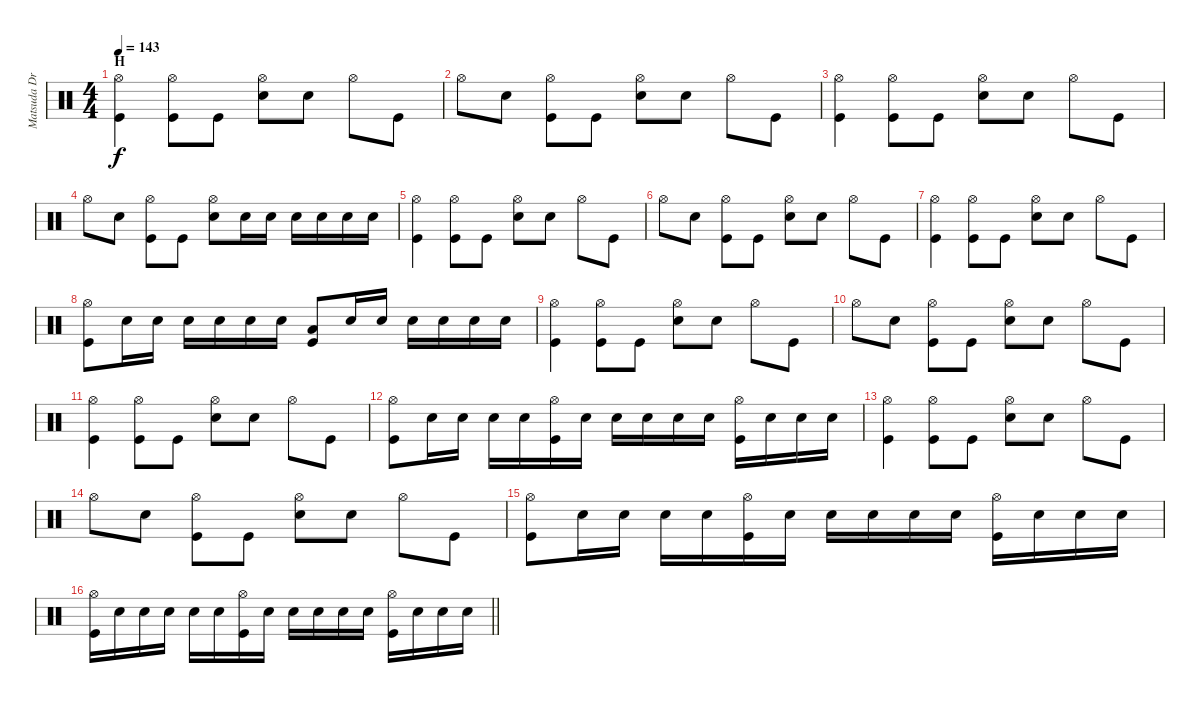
\track ("Matsuda Drums" "Matsuda Dr") {instrument percussion}
\staff {score}
\articulation defaults
\ts (4 4)
\section ("" "H")
\tempo 143
\clef neutral
\ks c
("Hi-Hat (open)" "Kick (hit)").4{dy f} ("Hi-Hat (open)" "Kick (hit)").8 "Kick (hit)".8 ("Hi-Hat (open)" "Snare (hit) 2").8 "Snare (hit) 2".8 "Hi-Hat (open)".8 "Kick (hit)".8 |
"Hi-Hat (open)".8 "Snare (hit) 2".8 ("Hi-Hat (open)" "Kick (hit)").8 "Kick (hit)".8 ("Hi-Hat (open)" "Snare (hit) 2").8 "Snare (hit) 2".8 "Hi-Hat (open)".8 "Kick (hit)".8 |
("Hi-Hat (open)" "Kick (hit)").4 ("Hi-Hat (open)" "Kick (hit)").8 "Kick (hit)".8 ("Hi-Hat (open)" "Snare (hit) 2").8 "Snare (hit) 2".8 "Hi-Hat (open)".8 "Kick (hit)".8 |
"Hi-Hat (open)".8 "Snare (hit) 2".8 ("Hi-Hat (open)" "Kick (hit)").8 "Kick (hit)".8 ("Hi-Hat (open)" "Snare (hit) 2").8 "Snare (hit) 2".16 "Snare (hit) 2".16 "Snare (hit) 2".16 "Snare (hit) 2".16 "Snare (hit) 2".16 "Snare (hit) 2".16 |
("Hi-Hat (open)" "Kick (hit)").4 ("Hi-Hat (open)" "Kick (hit)").8 "Kick (hit)".8 ("Hi-Hat (open)" "Snare (hit) 2").8 "Snare (hit) 2".8 "Hi-Hat (open)".8 "Kick (hit)".8 |
"Hi-Hat (open)".8 "Snare (hit) 2".8 ("Hi-Hat (open)" "Kick (hit)").8 "Kick (hit)".8 ("Hi-Hat (open)" "Snare (hit) 2").8 "Snare (hit) 2".8 "Hi-Hat (open)".8 "Kick (hit)".8 |
("Hi-Hat (open)" "Kick (hit)").4 ("Hi-Hat (open)" "Kick (hit)").8 "Kick (hit)".8 ("Hi-Hat (open)" "Snare (hit) 2").8 "Snare (hit) 2".8 "Hi-Hat (open)".8 "Kick (hit)".8 |
("Hi-Hat (open)" "Kick (hit)").8 "Snare (hit) 2".16 "Snare (hit) 2".16 "Snare (hit) 2".16 "Snare (hit) 2".16 "Snare (hit) 2".16 "Snare (hit) 2".16 ("Low Tom (hit)" "Kick (hit)").8 "Snare (hit) 2".16 "Snare (hit) 2".16 "Snare (hit) 2".16 "Snare (hit) 2".16 "Snare (hit) 2".16 "Snare (hit) 2".16 |
("Hi-Hat (open)" "Kick (hit)").4 ("Hi-Hat (open)" "Kick (hit)").8 "Kick (hit)".8 ("Hi-Hat (open)" "Snare (hit) 2").8 "Snare (hit) 2".8 "Hi-Hat (open)".8 "Kick (hit)".8 |
"Hi-Hat (open)".8 "Snare (hit) 2".8 ("Hi-Hat (open)" "Kick (hit)").8 "Kick (hit)".8 ("Hi-Hat (open)" "Snare (hit) 2").8 "Snare (hit) 2".8 "Hi-Hat (open)".8 "Kick (hit)".8 |
("Hi-Hat (open)" "Kick (hit)").4 ("Hi-Hat (open)" "Kick (hit)").8 "Kick (hit)".8 ("Hi-Hat (open)" "Snare (hit) 2").8 "Snare (hit) 2".8 "Hi-Hat (open)".8 "Kick (hit)".8 |
("Hi-Hat (open)" "Kick (hit)").8 "Snare (hit) 2".16 "Snare (hit) 2".16 "Snare (hit) 2".16 "Snare (hit) 2".16 ("Hi-Hat (open)" "Kick (hit)").16 "Snare (hit) 2".16 "Snare (hit) 2".16 "Snare (hit) 2".16 "Snare (hit) 2".16 "Snare (hit) 2".16 ("Hi-Hat (open)" "Kick (hit)").16 "Snare (hit) 2".16 "Snare (hit) 2".16 "Snare (hit) 2".16 |
("Hi-Hat (open)" "Kick (hit)").4 ("Hi-Hat (open)" "Kick (hit)").8 "Kick (hit)".8 ("Hi-Hat (open)" "Snare (hit) 2").8 "Snare (hit) 2".8 "Hi-Hat (open)".8 "Kick (hit)".8 |
"Hi-Hat (open)".8 "Snare (hit) 2".8 ("Hi-Hat (open)" "Kick (hit)").8 "Kick (hit)".8 ("Hi-Hat (open)" "Snare (hit) 2").8 "Snare (hit) 2".8 "Hi-Hat (open)".8 "Kick (hit)".8 |
("Hi-Hat (open)" "Kick (hit)").8 "Snare (hit) 2".16 "Snare (hit) 2".16 "Snare (hit) 2".16 "Snare (hit) 2".16 ("Hi-Hat (open)" "Kick (hit)").16 "Snare (hit) 2".16 "Snare (hit) 2".16 "Snare (hit) 2".16 "Snare (hit) 2".16 "Snare (hit) 2".16 ("Hi-Hat (open)" "Kick (hit)").16 "Snare (hit) 2".16 "Snare (hit) 2".16 "Snare (hit) 2".16 |
\barLineRight lightlight
("Hi-Hat (open)" "Kick (hit)").16 "Snare (hit) 2".16 "Snare (hit) 2".16 "Snare (hit) 2".16 "Snare (hit) 2".16 "Snare (hit) 2".16 ("Hi-Hat (open)" "Kick (hit)").16 "Snare (hit) 2".16 "Snare (hit) 2".16 "Snare (hit) 2".16 "Snare (hit) 2".16 "Snare (hit) 2".16 ("Hi-Hat (open)" "Kick (hit)").16 "Snare (hit) 2".16 "Snare (hit) 2".16 "Snare (hit) 2".16
